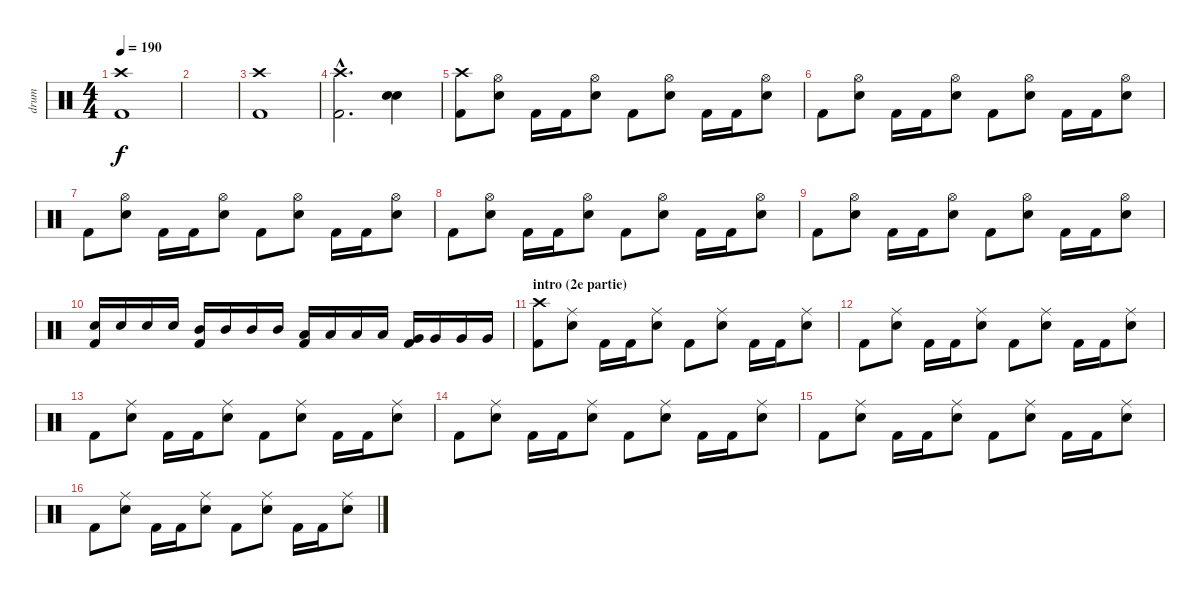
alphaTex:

\track ("drum" "drum") {instrument percussion}
\staff {score}
\articulation defaults
\ts (4 4)
\tempo 190
\clef neutral
\ks c
("Crash high (hit)" "Kick (hit) 2").1{dy f} |
|
("Crash high (hit)" "Kick (hit) 2").1 |
("Crash high (hit)"{hac} "Kick (hit) 2"{hac}).2{d} ("Electric Snare (hit)" "Electric Snare (hit)").4 |
("Crash high (hit)" "Kick (hit) 2").8 ("Hi-Hat (open)" "Electric Snare (hit)").8 "Kick (hit) 2".16 "Kick (hit) 2".16 ("Hi-Hat (open)" "Electric Snare (hit)").8 "Kick (hit) 2".8 ("Hi-Hat (open)" "Electric Snare (hit)").8 "Kick (hit) 2".16 "Kick (hit) 2".16 ("Hi-Hat (open)" "Electric Snare (hit)").8 |
"Kick (hit) 2".8 ("Hi-Hat (open)" "Electric Snare (hit)").8 "Kick (hit) 2".16 "Kick (hit) 2".16 ("Hi-Hat (open)" "Electric Snare (hit)").8 "Kick (hit) 2".8 ("Hi-Hat (open)" "Electric Snare (hit)").8 "Kick (hit) 2".16 "Kick (hit) 2".16 ("Hi-Hat (open)" "Electric Snare (hit)").8 |
"Kick (hit) 2".8 ("Hi-Hat (open)" "Electric Snare (hit)").8 "Kick (hit) 2".16 "Kick (hit) 2".16 ("Hi-Hat (open)" "Electric Snare (hit)").8 "Kick (hit) 2".8 ("Hi-Hat (open)" "Electric Snare (hit)").8 "Kick (hit) 2".16 "Kick (hit) 2".16 ("Hi-Hat (open)" "Electric Snare (hit)").8 |
"Kick (hit) 2".8 ("Hi-Hat (open)" "Electric Snare (hit)").8 "Kick (hit) 2".16 "Kick (hit) 2".16 ("Hi-Hat (open)" "Electric Snare (hit)").8 "Kick (hit) 2".8 ("Hi-Hat (open)" "Electric Snare (hit)").8 "Kick (hit) 2".16 "Kick (hit) 2".16 ("Hi-Hat (open)" "Electric Snare (hit)").8 |
"Kick (hit) 2".8 ("Hi-Hat (open)" "Electric Snare (hit)").8 "Kick (hit) 2".16 "Kick (hit) 2".16 ("Hi-Hat (open)" "Electric Snare (hit)").8 "Kick (hit) 2".8 ("Hi-Hat (open)" "Electric Snare (hit)").8 "Kick (hit) 2".16 "Kick (hit) 2".16 ("Hi-Hat (open)" "Electric Snare (hit)").8 |
("Electric Snare (hit)" "Kick (hit) 2").16 "Electric Snare (hit)".16 "Electric Snare (hit)".16 "Electric Snare (hit)".16 ("Mid Tom (hit)" "Kick (hit) 2").16 "Mid Tom (hit)".16 "Mid Tom (hit)".16 "Mid Tom (hit)".16 ("Low Tom (hit)" "Kick (hit) 2").16 "Low Tom (hit)".16 "Low Tom (hit)".16 "Low Tom (hit)".16 ("Very Low Tom (hit)" "Kick (hit) 2").16 "Very Low Tom (hit)".16 "Very Low Tom (hit)".16 "Very Low Tom (hit)".16 |
\section ("" "intro (2e partie)")
("Crash high (hit)" "Kick (hit) 2").8 ("Ride (middle)" "Electric Snare (hit)").8 "Kick (hit) 2".16 "Kick (hit) 2".16 ("Ride (middle)" "Electric Snare (hit)").8 "Kick (hit) 2".8 ("Ride (middle)" "Electric Snare (hit)").8 "Kick (hit) 2".16 "Kick (hit) 2".16 ("Ride (middle)" "Electric Snare (hit)").8 |
"Kick (hit) 2".8 ("Ride (middle)" "Electric Snare (hit)").8 "Kick (hit) 2".16 "Kick (hit) 2".16 ("Ride (middle)" "Electric Snare (hit)").8 "Kick (hit) 2".8 ("Ride (middle)" "Electric Snare (hit)").8 "Kick (hit) 2".16 "Kick (hit) 2".16 ("Ride (middle)" "Electric Snare (hit)").8 |
"Kick (hit) 2".8 ("Ride (middle)" "Electric Snare (hit)").8 "Kick (hit) 2".16 "Kick (hit) 2".16 ("Ride (middle)" "Electric Snare (hit)").8 "Kick (hit) 2".8 ("Ride (middle)" "Electric Snare (hit)").8 "Kick (hit) 2".16 "Kick (hit) 2".16 ("Ride (middle)" "Electric Snare (hit)").8 |
"Kick (hit) 2".8 ("Ride (middle)" "Electric Snare (hit)").8 "Kick (hit) 2".16 "Kick (hit) 2".16 ("Ride (middle)" "Electric Snare (hit)").8 "Kick (hit) 2".8 ("Ride (middle)" "Electric Snare (hit)").8 "Kick (hit) 2".16 "Kick (hit) 2".16 ("Ride (middle)" "Electric Snare (hit)").8 |
"Kick (hit) 2".8 ("Ride (middle)" "Electric Snare (hit)").8 "Kick (hit) 2".16 "Kick (hit) 2".16 ("Ride (middle)" "Electric Snare (hit)").8 "Kick (hit) 2".8 ("Ride (middle)" "Electric Snare (hit)").8 "Kick (hit) 2".16 "Kick (hit) 2".16 ("Ride (middle)" "Electric Snare (hit)").8 |
"Kick (hit) 2".8 ("Ride (middle)" "Electric Snare (hit)").8 "Kick (hit) 2".16 "Kick (hit) 2".16 ("Ride (middle)" "Electric Snare (hit)").8 "Kick (hit) 2".8 ("Ride (middle)" "Electric Snare (hit)").8 "Kick (hit) 2".16 "Kick (hit) 2".16 ("Ride (middle)" "Electric Snare (hit)").8
